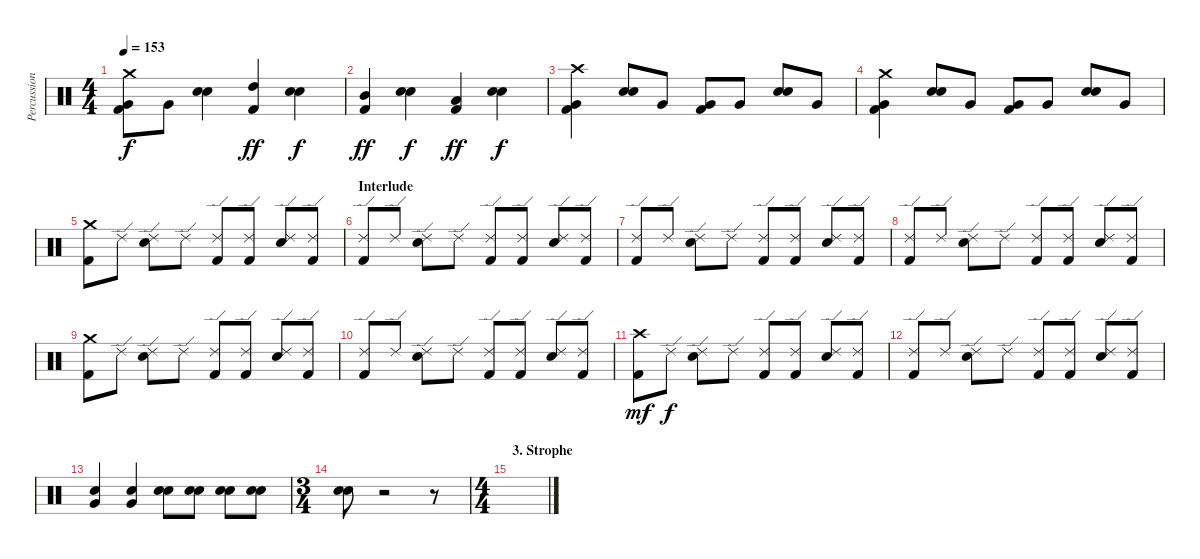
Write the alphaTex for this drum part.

\track ("Percussion" "Percussion") {instrument percussion}
\staff {score}
\articulation defaults
\ts (4 4)
\tempo 153
\clef neutral
\ks c
("Crash medium (hit)" "Very Low Tom (hit)" "Kick (hit) 2").8{dy f} "Very Low Tom (hit)".8 ("Electric Snare (hit)" "Snare (hit) 2").4 ("High Tom (hit)" "Kick (hit) 2").4{dy ff} ("Electric Snare (hit)" "Snare (hit) 2").4{dy f} |
("Mid Tom (hit)" "Kick (hit) 2").4{dy ff} ("Electric Snare (hit)" "Snare (hit) 2").4{dy f} ("Low Tom (hit)" "Kick (hit) 2").4{dy ff} ("Electric Snare (hit)" "Snare (hit) 2").4{dy f} |
("Crash high (hit)" "Very Low Tom (hit)" "Kick (hit) 2").4 ("Electric Snare (hit)" "Snare (hit) 2").8 "Very Low Tom (hit)".8 ("Very Low Tom (hit)" "Kick (hit) 2").8 "Very Low Tom (hit)".8 ("Electric Snare (hit)" "Snare (hit) 2").8 "Very Low Tom (hit)".8 |
("Crash medium (hit)" "Very Low Tom (hit)" "Kick (hit) 2").4 ("Electric Snare (hit)" "Snare (hit) 2").8 "Very Low Tom (hit)".8 ("Very Low Tom (hit)" "Kick (hit) 2").8 "Very Low Tom (hit)".8 ("Electric Snare (hit)" "Snare (hit) 2").8 "Very Low Tom (hit)".8 |
("Crash medium (hit)" "Kick (hit) 2").8 "Ride (edge) 2".8 ("Ride (edge) 2" "Electric Snare (hit)").8 "Ride (edge) 2".8 ("Ride (edge) 2" "Kick (hit) 2").8 ("Ride (edge) 2" "Kick (hit) 2").8 ("Ride (edge) 2" "Electric Snare (hit)").8 ("Ride (edge) 2" "Kick (hit) 2").8 |
\section ("" "Interlude")
("Ride (edge) 2" "Kick (hit) 2").8 "Ride (edge) 2".8 ("Ride (edge) 2" "Electric Snare (hit)").8 "Ride (edge) 2".8 ("Ride (edge) 2" "Kick (hit) 2").8 ("Ride (edge) 2" "Kick (hit) 2").8 ("Ride (edge) 2" "Electric Snare (hit)").8 ("Ride (edge) 2" "Kick (hit) 2").8 |
("Ride (edge) 2" "Kick (hit) 2").8 "Ride (edge) 2".8 ("Ride (edge) 2" "Electric Snare (hit)").8 "Ride (edge) 2".8 ("Ride (edge) 2" "Kick (hit) 2").8 ("Ride (edge) 2" "Kick (hit) 2").8 ("Ride (edge) 2" "Electric Snare (hit)").8 ("Ride (edge) 2" "Kick (hit) 2").8 |
("Ride (edge) 2" "Kick (hit) 2").8 "Ride (edge) 2".8 ("Ride (edge) 2" "Electric Snare (hit)").8 "Ride (edge) 2".8 ("Ride (edge) 2" "Kick (hit) 2").8 ("Ride (edge) 2" "Kick (hit) 2").8 ("Ride (edge) 2" "Electric Snare (hit)").8 ("Ride (edge) 2" "Kick (hit) 2").8 |
("Crash medium (hit)" "Kick (hit) 2").8 "Ride (edge) 2".8 ("Ride (edge) 2" "Electric Snare (hit)").8 "Ride (edge) 2".8 ("Ride (edge) 2" "Kick (hit) 2").8 ("Ride (edge) 2" "Kick (hit) 2").8 ("Ride (edge) 2" "Electric Snare (hit)").8 ("Ride (edge) 2" "Kick (hit) 2").8 |
("Ride (edge) 2" "Kick (hit) 2").8 "Ride (edge) 2".8 ("Ride (edge) 2" "Electric Snare (hit)").8 "Ride (edge) 2".8 ("Ride (edge) 2" "Kick (hit) 2").8 ("Ride (edge) 2" "Kick (hit) 2").8 ("Ride (edge) 2" "Electric Snare (hit)").8 ("Ride (edge) 2" "Kick (hit) 2").8 |
("Crash high (hit)" "Kick (hit) 2").8{dy mf} "Ride (edge) 2".8{dy f} ("Ride (edge) 2" "Electric Snare (hit)").8 "Ride (edge) 2".8 ("Ride (edge) 2" "Kick (hit) 2").8 ("Ride (edge) 2" "Kick (hit) 2").8 ("Ride (edge) 2" "Electric Snare (hit)").8 ("Ride (edge) 2" "Kick (hit) 2").8 |
("Ride (edge) 2" "Kick (hit) 2").8 "Ride (edge) 2".8 ("Ride (edge) 2" "Electric Snare (hit)").8 "Ride (edge) 2".8 ("Ride (edge) 2" "Kick (hit) 2").8 ("Ride (edge) 2" "Kick (hit) 2").8 ("Ride (edge) 2" "Electric Snare (hit)").8 ("Ride (edge) 2" "Kick (hit) 2").8 |
("Electric Snare (hit)" "Very Low Tom (hit)").4 ("Electric Snare (hit)" "Very Low Tom (hit)").4 ("Electric Snare (hit)" "Electric Snare (hit)").8 ("Electric Snare (hit)" "Electric Snare (hit)").8 ("Electric Snare (hit)" "Electric Snare (hit)").8 ("Electric Snare (hit)" "Electric Snare (hit)").8 |
\ts (3 4)
("Electric Snare (hit)" "Snare (hit) 2").8 r.2 r.8 |
\ts (4 4)
\section ("" "3. Strophe")
